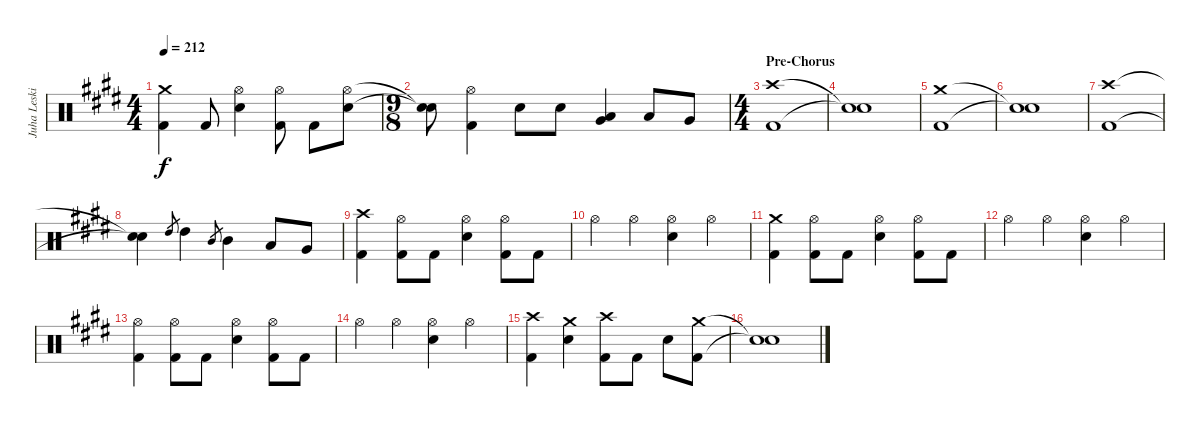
\track ("Juha Leskinen - Drums" "Juha Leski") {instrument percussion}
\staff {score}
\articulation defaults
\ts (4 4)
\tempo 212
\clef neutral
\ks c#minor
("Crash medium (hit)" "Kick (hit) 2").4{dy f} "Kick (hit) 2".8 ("Hi-Hat (open)" "Electric Snare (hit)").4 ("Hi-Hat (open)" "Kick (hit) 2").8 "Kick (hit) 2".8 ("Hi-Hat (open)" "Electric Snare (hit)").8 |
\ts (9 8)
("Snare (hit)"{t} "Snare (hit)"{t}).8 ("Hi-Hat (open)" "Kick (hit) 2").4 "Electric Snare (hit)".8 "Electric Snare (hit)".8 ("Low Tom (hit)" "Very Low Tom (hit)").4 "Low Tom (hit)".8 "Very Low Tom (hit)".8 |
\ts (4 4)
\section ("" "Pre-Chorus ")
("Crash high (hit)" "Kick (hit) 2").1 |
("Snare (hit)"{t} "Snare (hit)"{t}).1 |
("Crash medium (hit)" "Kick (hit) 2").1 |
("Snare (hit)"{t} "Snare (hit)"{t}).1 |
("Crash high (hit)" "Kick (hit) 2").1 |
("Snare (hit)"{t} "Snare (hit)"{t}).4 "High Tom (hit)".8{gr} "High Tom (hit)".4 "Mid Tom (hit)".8{gr} "Mid Tom (hit)".4 "Low Tom (hit)".8 "Very Low Tom (hit)".8 |
("Crash high (hit)" "Kick (hit) 2").4 ("Hi-Hat (open)" "Kick (hit) 2").8 "Kick (hit) 2".8 ("Hi-Hat (open)" "Electric Snare (hit)").4 ("Hi-Hat (open)" "Kick (hit) 2").8 "Kick (hit) 2".8 |
"Hi-Hat (open)".4 "Hi-Hat (open)".4 ("Hi-Hat (open)" "Electric Snare (hit)").4 "Hi-Hat (open)".4 |
("Crash medium (hit)" "Kick (hit) 2").4 ("Hi-Hat (open)" "Kick (hit) 2").8 "Kick (hit) 2".8 ("Hi-Hat (open)" "Electric Snare (hit)").4 ("Hi-Hat (open)" "Kick (hit) 2").8 "Kick (hit) 2".8 |
"Hi-Hat (open)".4 "Hi-Hat (open)".4 ("Hi-Hat (open)" "Electric Snare (hit)").4 "Hi-Hat (open)".4 |
("Hi-Hat (open)" "Kick (hit) 2").4 ("Hi-Hat (open)" "Kick (hit) 2").8 "Kick (hit) 2".8 ("Hi-Hat (open)" "Electric Snare (hit)").4 ("Hi-Hat (open)" "Kick (hit) 2").8 "Kick (hit) 2".8 |
"Hi-Hat (open)".4 "Hi-Hat (open)".4 ("Hi-Hat (open)" "Electric Snare (hit)").4 "Hi-Hat (open)".4 |
("Crash high (hit)" "Kick (hit) 2").4 ("Crash medium (hit)" "Electric Snare (hit)").4 ("Crash high (hit)" "Kick (hit) 2").8 "Kick (hit) 2".8 "Electric Snare (hit)".8 ("Crash medium (hit)" "Kick (hit) 2").8 |
("Snare (hit)"{t} "Snare (hit)"{t}).1
